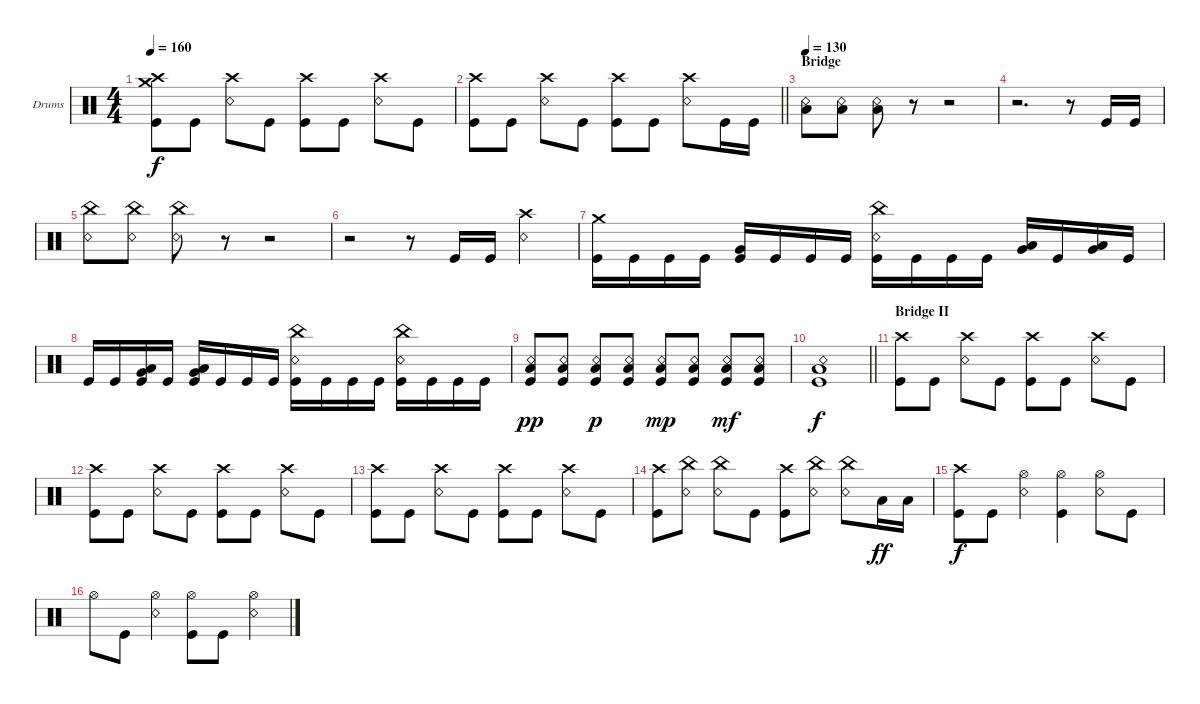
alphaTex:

\bracketExtendMode groupsimilarinstruments
\firstSystemTrackNameOrientation horizontal
\otherSystemsTrackNameOrientation horizontal
\track ("Drums" "Drums") {instrument percussion}
\staff {score}
\articulation defaults
\ts (4 4)
\tempo 160
\clef neutral
\ks c
("Kick (hit)" "Crash high (hit)" "Crash medium (hit)").8{dy f} "Kick (hit)".8 ("Snare (rim shot)" "Crash high (hit)").8 "Kick (hit)".8 ("Kick (hit)" "Crash high (hit)").8 "Kick (hit)".8 ("Snare (rim shot)" "Crash high (hit)").8 "Kick (hit)".8 |
\barLineRight lightlight
("Kick (hit)" "Crash high (hit)").8 "Kick (hit)".8 ("Snare (rim shot)" "Crash high (hit)").8 "Kick (hit)".8 ("Kick (hit)" "Crash high (hit)").8 "Kick (hit)".8 ("Snare (rim shot)" "Crash high (hit)").8 "Kick (hit)".16 "Kick (hit)".16 |
\section ("" "Bridge")
\tempo 130
("Snare (rim shot)" "Low Tom (hit)").8 ("Snare (rim shot)" "Low Tom (hit)").8 ("Snare (rim shot)" "Low Tom (hit)").8 r.8 r.2 |
r.2{d} r.8 "Kick (hit)".16 "Kick (hit)".16 |
("China (hit)" "Snare (rim shot)").8 ("China (hit)" "Snare (rim shot)").8 ("China (hit)" "Snare (rim shot)").8 r.8 r.2 |
r.2 r.8 "Kick (hit)".16 "Kick (hit)".16 ("Crash high (hit)" "Snare (rim shot)").4 |
("Crash medium (hit)" "Kick (hit)").16 "Kick (hit)".16 "Kick (hit)".16 "Kick (hit)".16 ("Very Low Tom (hit)" "Kick (hit)").16 "Kick (hit)".16 "Kick (hit)".16 "Kick (hit)".16 ("China (hit)" "Snare (rim shot)" "Kick (hit)").16 "Kick (hit)".16 "Kick (hit)".16 "Kick (hit)".16 ("Very Low Tom (hit)" "Low Tom (hit)").16 "Kick (hit)".16 ("Very Low Tom (hit)" "Low Tom (hit)").16 "Kick (hit)".16 |
"Kick (hit)".16 "Kick (hit)".16 ("Very Low Tom (hit)" "Low Tom (hit)" "Kick (hit)").16 "Kick (hit)".16 ("Very Low Tom (hit)" "Low Tom (hit)" "Kick (hit)").16 "Kick (hit)".16 "Kick (hit)".16 "Kick (hit)".16 ("China (hit)" "Snare (rim shot)" "Kick (hit)").16 "Kick (hit)".16 "Kick (hit)".16 "Kick (hit)".16 ("China (hit)" "Snare (rim shot)" "Kick (hit)").16 "Kick (hit)".16 "Kick (hit)".16 "Kick (hit)".16 |
("Snare (rim shot)" "Kick (hit)" "Low Tom (hit)").8{dy pp} ("Snare (rim shot)" "Kick (hit)" "Low Tom (hit)").8 ("Snare (rim shot)" "Kick (hit)" "Low Tom (hit)").8{dy p} ("Snare (rim shot)" "Kick (hit)" "Low Tom (hit)").8 ("Snare (rim shot)" "Kick (hit)" "Low Tom (hit)").8{dy mp} ("Snare (rim shot)" "Kick (hit)" "Low Tom (hit)").8 ("Snare (rim shot)" "Kick (hit)" "Low Tom (hit)").8{dy mf} ("Snare (rim shot)" "Kick (hit)" "Low Tom (hit)").8 |
\barLineRight lightlight
("Snare (rim shot)" "Kick (hit)" "Low Tom (hit)").1{dy f} |
\section ("" "Bridge II")
("Kick (hit)" "Crash high (hit)").8 "Kick (hit)".8 ("Snare (rim shot)" "Crash high (hit)").8 "Kick (hit)".8 ("Kick (hit)" "Crash high (hit)").8 "Kick (hit)".8 ("Snare (rim shot)" "Crash high (hit)").8 "Kick (hit)".8 |
("Kick (hit)" "Crash high (hit)").8 "Kick (hit)".8 ("Snare (rim shot)" "Crash high (hit)").8 "Kick (hit)".8 ("Kick (hit)" "Crash high (hit)").8 "Kick (hit)".8 ("Snare (rim shot)" "Crash high (hit)").8 "Kick (hit)".8 |
("Kick (hit)" "Crash high (hit)").8 "Kick (hit)".8 ("Snare (rim shot)" "Crash high (hit)").8 "Kick (hit)".8 ("Kick (hit)" "Crash high (hit)").8 "Kick (hit)".8 ("Snare (rim shot)" "Crash high (hit)").8 "Kick (hit)".8 |
("Kick (hit)" "Crash high (hit)").8 ("China (hit)" "Snare (rim shot)").8 ("China (hit)" "Snare (rim shot)").8 "Kick (hit)".8 ("Kick (hit)" "Crash high (hit)").8 ("China (hit)" "Snare (rim shot)").8 ("China (hit)" "Snare (rim shot)").8 "Low Tom (hit)".16{dy ff} "Low Tom (hit)".16 |
("Kick (hit)" "Crash high (hit)").8{dy f} "Kick (hit)".8 ("Snare (rim shot)" "Hi-Hat (open)").4 ("Kick (hit)" "Hi-Hat (open)").4 ("Snare (rim shot)" "Hi-Hat (open)").8 "Kick (hit)".8 |
"Hi-Hat (open)".8 "Kick (hit)".8 ("Snare (rim shot)" "Hi-Hat (open)").4 ("Kick (hit)" "Hi-Hat (open)").8 "Kick (hit)".8 ("Snare (rim shot)" "Hi-Hat (open)").4
